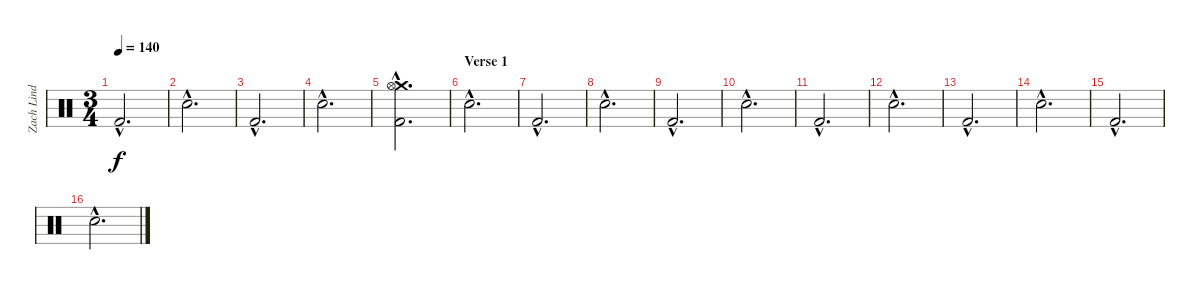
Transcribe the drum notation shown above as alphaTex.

\track ("Zach Lind - Drums" "Zach Lind ") {instrument percussion}
\staff {score}
\articulation defaults
\ts (3 4)
\tempo 140
\clef neutral
\ks c "Kick (hit) 2"{hac}.2{d dy f}
|
"Electric Snare (hit)"{hac}.2{d} |
"Kick (hit) 2"{hac}.2{d} |
"Electric Snare (hit)"{hac}.2{d} |
("Crash medium (hit)"{hac} "Hi-Hat (open)"{hac} "Kick (hit) 2"{hac}).2{d} |
\section ("" "Verse 1")
"Electric Snare (hit)"{hac}.2{d} |
"Kick (hit) 2"{hac}.2{d} |
"Electric Snare (hit)"{hac}.2{d} |
"Kick (hit) 2"{hac}.2{d} |
"Electric Snare (hit)"{hac}.2{d} |
"Kick (hit) 2"{hac}.2{d} |
"Electric Snare (hit)"{hac}.2{d} |
"Kick (hit) 2"{hac}.2{d} |
"Electric Snare (hit)"{hac}.2{d} |
"Kick (hit) 2"{hac}.2{d} |
"Electric Snare (hit)"{hac}.2{d}
